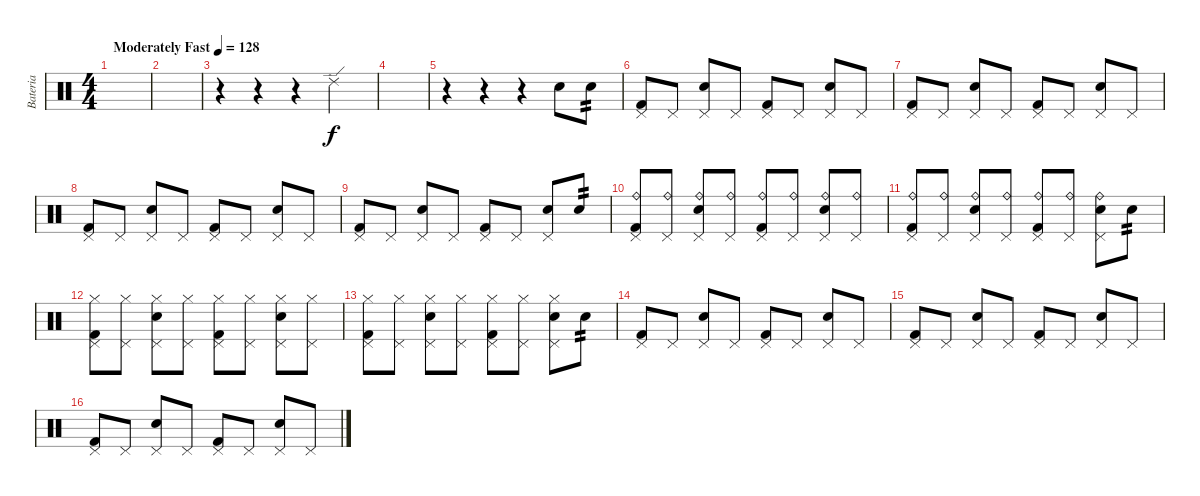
\track ("Bateria" "Bateria") {instrument percussion}
\staff {score}
\articulation defaults
\ts (4 4)
\tempo (128 "Moderately Fast")
\clef neutral
\ks c
|
|
r.4 r.4 r.4 "Ride (edge) 2".2 |
|
r.4 r.4 r.4 "Electric Snare (hit)".8{dy f} "Electric Snare (hit)".8{tp 2} |
("Pedal Hi-Hat (hit)" "Kick (hit) 2").8 "Pedal Hi-Hat (hit)".8 ("Pedal Hi-Hat (hit)" "Electric Snare (hit)").8 "Pedal Hi-Hat (hit)".8 ("Pedal Hi-Hat (hit)" "Kick (hit) 2").8 "Pedal Hi-Hat (hit)".8 ("Pedal Hi-Hat (hit)" "Electric Snare (hit)").8 "Pedal Hi-Hat (hit)".8 |
("Pedal Hi-Hat (hit)" "Kick (hit) 2").8 "Pedal Hi-Hat (hit)".8 ("Pedal Hi-Hat (hit)" "Electric Snare (hit)").8 "Pedal Hi-Hat (hit)".8 ("Pedal Hi-Hat (hit)" "Kick (hit) 2").8 "Pedal Hi-Hat (hit)".8 ("Pedal Hi-Hat (hit)" "Electric Snare (hit)").8 "Pedal Hi-Hat (hit)".8 |
("Pedal Hi-Hat (hit)" "Kick (hit) 2").8 "Pedal Hi-Hat (hit)".8 ("Pedal Hi-Hat (hit)" "Electric Snare (hit)").8 "Pedal Hi-Hat (hit)".8 ("Pedal Hi-Hat (hit)" "Kick (hit) 2").8 "Pedal Hi-Hat (hit)".8 ("Pedal Hi-Hat (hit)" "Electric Snare (hit)").8 "Pedal Hi-Hat (hit)".8 |
("Pedal Hi-Hat (hit)" "Kick (hit) 2").8 "Pedal Hi-Hat (hit)".8 ("Pedal Hi-Hat (hit)" "Electric Snare (hit)").8 "Pedal Hi-Hat (hit)".8 ("Pedal Hi-Hat (hit)" "Kick (hit) 2").8 "Pedal Hi-Hat (hit)".8 ("Pedal Hi-Hat (hit)" "Electric Snare (hit)").8 "Electric Snare (hit)".8{tp 2} |
("Pedal Hi-Hat (hit)" "Kick (hit) 2" "Ride (bell)").8 ("Pedal Hi-Hat (hit)" "Ride (bell)").8 ("Pedal Hi-Hat (hit)" "Electric Snare (hit)" "Ride (bell)").8 ("Pedal Hi-Hat (hit)" "Ride (bell)").8 ("Pedal Hi-Hat (hit)" "Kick (hit) 2" "Ride (bell)").8 ("Pedal Hi-Hat (hit)" "Ride (bell)").8 ("Pedal Hi-Hat (hit)" "Electric Snare (hit)" "Ride (bell)").8 ("Pedal Hi-Hat (hit)" "Ride (bell)").8 |
("Pedal Hi-Hat (hit)" "Kick (hit) 2" "Ride (bell)").8 ("Pedal Hi-Hat (hit)" "Ride (bell)").8 ("Pedal Hi-Hat (hit)" "Electric Snare (hit)" "Ride (bell)").8 ("Pedal Hi-Hat (hit)" "Ride (bell)").8 ("Pedal Hi-Hat (hit)" "Kick (hit) 2" "Ride (bell)").8 ("Pedal Hi-Hat (hit)" "Ride (bell)").8 ("Pedal Hi-Hat (hit)" "Electric Snare (hit)" "Ride (bell)").8 "Electric Snare (hit)".8{tp 2} |
("Pedal Hi-Hat (hit)" "Kick (hit) 2" "Hi-Hat (closed)").8 ("Pedal Hi-Hat (hit)" "Hi-Hat (closed)").8 ("Pedal Hi-Hat (hit)" "Electric Snare (hit)" "Hi-Hat (closed)").8 ("Pedal Hi-Hat (hit)" "Hi-Hat (closed)").8 ("Pedal Hi-Hat (hit)" "Kick (hit) 2" "Hi-Hat (closed)").8 ("Pedal Hi-Hat (hit)" "Hi-Hat (closed)").8 ("Pedal Hi-Hat (hit)" "Electric Snare (hit)" "Hi-Hat (closed)").8 ("Pedal Hi-Hat (hit)" "Hi-Hat (closed)").8 |
("Pedal Hi-Hat (hit)" "Kick (hit) 2" "Hi-Hat (closed)").8 ("Pedal Hi-Hat (hit)" "Hi-Hat (closed)").8 ("Pedal Hi-Hat (hit)" "Electric Snare (hit)" "Hi-Hat (closed)").8 ("Pedal Hi-Hat (hit)" "Hi-Hat (closed)").8 ("Pedal Hi-Hat (hit)" "Kick (hit) 2" "Hi-Hat (closed)").8 ("Pedal Hi-Hat (hit)" "Hi-Hat (closed)").8 ("Pedal Hi-Hat (hit)" "Electric Snare (hit)" "Hi-Hat (closed)").8 "Electric Snare (hit)".8{tp 2} |
("Pedal Hi-Hat (hit)" "Kick (hit) 2").8 "Pedal Hi-Hat (hit)".8 ("Pedal Hi-Hat (hit)" "Electric Snare (hit)").8 "Pedal Hi-Hat (hit)".8 ("Pedal Hi-Hat (hit)" "Kick (hit) 2").8 "Pedal Hi-Hat (hit)".8 ("Pedal Hi-Hat (hit)" "Electric Snare (hit)").8 "Pedal Hi-Hat (hit)".8 |
("Pedal Hi-Hat (hit)" "Kick (hit) 2").8 "Pedal Hi-Hat (hit)".8 ("Pedal Hi-Hat (hit)" "Electric Snare (hit)").8 "Pedal Hi-Hat (hit)".8 ("Pedal Hi-Hat (hit)" "Kick (hit) 2").8 "Pedal Hi-Hat (hit)".8 ("Pedal Hi-Hat (hit)" "Electric Snare (hit)").8 "Pedal Hi-Hat (hit)".8 |
("Pedal Hi-Hat (hit)" "Kick (hit) 2").8 "Pedal Hi-Hat (hit)".8 ("Pedal Hi-Hat (hit)" "Electric Snare (hit)").8 "Pedal Hi-Hat (hit)".8 ("Pedal Hi-Hat (hit)" "Kick (hit) 2").8 "Pedal Hi-Hat (hit)".8 ("Pedal Hi-Hat (hit)" "Electric Snare (hit)").8 "Pedal Hi-Hat (hit)".8
